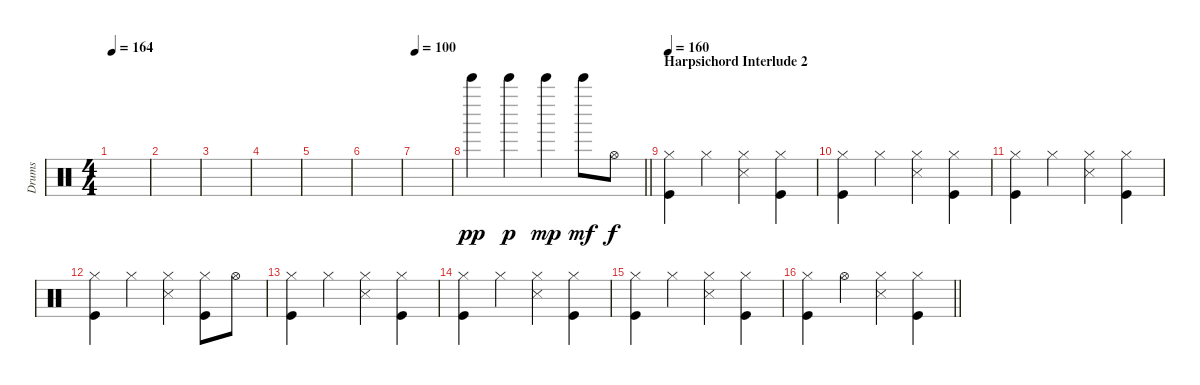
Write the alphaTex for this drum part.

\track ("Drums" "Drums") {instrument percussion}
\staff {score}
\articulation defaults
\ts (4 4)
\tempo 164
\clef neutral
\ks c
|
|
|
|
|
|
\tempo 100
|
\barLineRight lightlight "Bell Tree (hit)".4{dy pp} "Bell Tree (hit)".4{dy p} "Bell Tree (hit)".4{dy mp} "Bell Tree (hit)".8{dy mf} "Hi-Hat (open)".8{dy f}
|
\section ("" "Harpsichord Interlude 2")
\tempo 160
("Hi-Hat (closed)" "Kick (hit)").4 "Hi-Hat (closed)".4 ("Hi-Hat (closed)" "Snare (side stick) 3").4 ("Hi-Hat (closed)" "Kick (hit)").4 |
("Hi-Hat (closed)" "Kick (hit)").4 "Hi-Hat (closed)".4 ("Hi-Hat (closed)" "Snare (side stick) 3").4 ("Hi-Hat (closed)" "Kick (hit)").4 |
("Hi-Hat (closed)" "Kick (hit)").4 "Hi-Hat (closed)".4 ("Hi-Hat (closed)" "Snare (side stick) 3").4 ("Hi-Hat (closed)" "Kick (hit)").4 |
("Hi-Hat (closed)" "Kick (hit)").4 "Hi-Hat (closed)".4 ("Hi-Hat (closed)" "Snare (side stick) 3").4 ("Hi-Hat (closed)" "Kick (hit)").8 "Hi-Hat (open)".8 |
("Hi-Hat (closed)" "Kick (hit)").4 "Hi-Hat (closed)".4 ("Hi-Hat (closed)" "Snare (side stick) 3").4 ("Hi-Hat (closed)" "Kick (hit)").4 |
("Hi-Hat (closed)" "Kick (hit)").4 "Hi-Hat (closed)".4 ("Hi-Hat (closed)" "Snare (side stick) 3").4 ("Hi-Hat (closed)" "Kick (hit)").4 |
("Hi-Hat (closed)" "Kick (hit)").4 "Hi-Hat (closed)".4 ("Hi-Hat (closed)" "Snare (side stick) 3").4 ("Hi-Hat (closed)" "Kick (hit)").4 |
\barLineRight lightlight
("Hi-Hat (closed)" "Kick (hit)").4 "Hi-Hat (open)".4 ("Hi-Hat (closed)" "Snare (side stick) 3").4 ("Hi-Hat (closed)" "Kick (hit)").4
